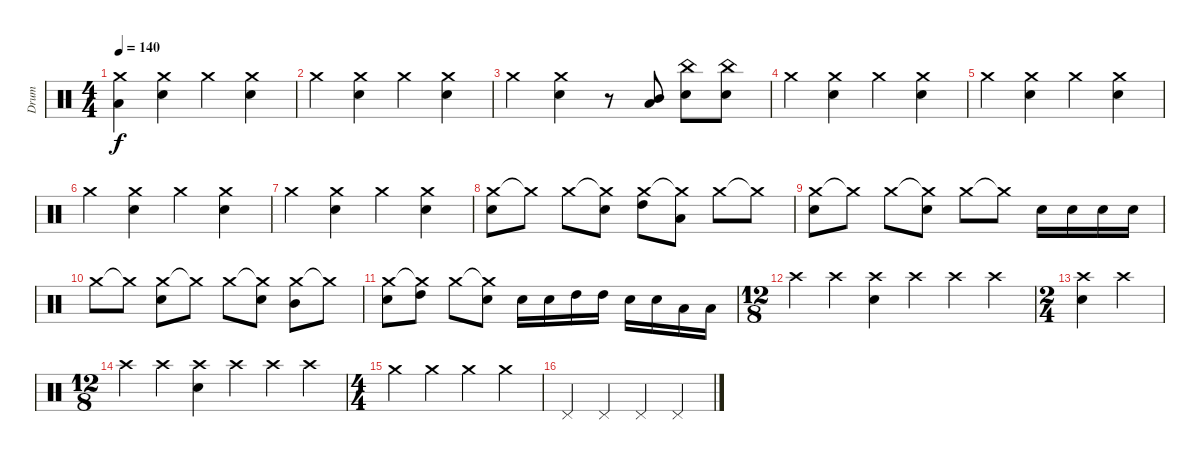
\track ("Drum" "Drum") {instrument percussion}
\staff {score}
\articulation defaults
\ts (4 4)
\tempo 140
\clef neutral
\ks c
("Crash medium (hit)" "Low Tom (hit)").4{dy f} ("Crash medium (hit)" "Snare (hit) 2").4 "Crash medium (hit)".4 ("Crash medium (hit)" "Snare (hit) 2").4 |
"Crash medium (hit)".4 ("Crash medium (hit)" "Snare (hit) 2").4 "Crash medium (hit)".4 ("Crash medium (hit)" "Snare (hit) 2").4 |
"Crash medium (hit)".4 ("Crash medium (hit)" "Snare (hit) 2").4 r.8 ("Mid Tom (hit)" "Low Tom (hit)").8 ("Snare (hit) 2" "China (hit)").8 ("Snare (hit) 2" "China (hit)").8 |
"Crash medium (hit)".4 ("Crash medium (hit)" "Snare (hit) 2").4 "Crash medium (hit)".4 ("Crash medium (hit)" "Snare (hit) 2").4 |
"Crash medium (hit)".4 ("Crash medium (hit)" "Snare (hit) 2").4 "Crash medium (hit)".4 ("Crash medium (hit)" "Snare (hit) 2").4 |
"Crash medium (hit)".4 ("Crash medium (hit)" "Snare (hit) 2").4 "Crash medium (hit)".4 ("Crash medium (hit)" "Snare (hit) 2").4 |
"Crash medium (hit)".4 ("Crash medium (hit)" "Snare (hit) 2").4 "Crash medium (hit)".4 ("Crash medium (hit)" "Snare (hit) 2").4 |
("Crash medium (hit)" "Snare (hit) 2").8 "Crash medium (hit)"{t}.8 "Crash medium (hit)".8 ("Crash medium (hit)"{t} "Snare (hit) 2").8 ("Crash medium (hit)" "High Tom (hit)").8 ("Crash medium (hit)"{t} "Low Tom (hit)").8 "Crash medium (hit)".8 "Crash medium (hit)"{t}.8 |
("Crash medium (hit)" "Snare (hit) 2").8 "Crash medium (hit)"{t}.8 "Crash medium (hit)".8 ("Crash medium (hit)"{t} "Snare (hit) 2").8 "Crash medium (hit)".8 "Crash medium (hit)"{t}.8 "Snare (hit) 2".16 "Snare (hit) 2".16 "Snare (hit) 2".16 "Snare (hit) 2".16 |
"Crash medium (hit)".8 "Crash medium (hit)"{t}.8 ("Crash medium (hit)" "Snare (hit) 2").8 "Crash medium (hit)"{t}.8 "Crash medium (hit)".8 ("Crash medium (hit)"{t} "Snare (hit) 2").8 ("Crash medium (hit)" "Mid Tom (hit)").8 "Crash medium (hit)"{t}.8 |
("Crash medium (hit)" "Snare (hit) 2").8 ("Crash medium (hit)"{t} "High Tom (hit)").8 "Crash medium (hit)".8 ("Crash medium (hit)"{t} "Snare (hit) 2").8 "Snare (hit) 2".16 "Snare (hit) 2".16 "High Tom (hit)".16 "High Tom (hit)".16 "Snare (hit) 2".16 "Snare (hit) 2".16 "Low Tom (hit)".16 "Low Tom (hit)".16 |
\ts (12 8)
"Crash high (hit)".4 "Crash high (hit)".4 ("Crash high (hit)" "Snare (hit) 2").4 "Crash high (hit)".4 "Crash high (hit)".4 "Crash high (hit)".4 |
\ts (2 4)
("Crash high (hit)" "Snare (hit) 2").4 "Crash high (hit)".4 |
\ts (12 8)
"Crash high (hit)".4 "Crash high (hit)".4 ("Crash high (hit)" "Snare (hit) 2").4 "Crash high (hit)".4 "Crash high (hit)".4 "Crash high (hit)".4 |
\ts (4 4)
"Crash medium (hit)".4 "Crash medium (hit)".4 "Crash medium (hit)".4 "Crash medium (hit)".4 |
"Pedal Hi-Hat (hit)".4 "Pedal Hi-Hat (hit)".4 "Pedal Hi-Hat (hit)".4 "Pedal Hi-Hat (hit)".4
